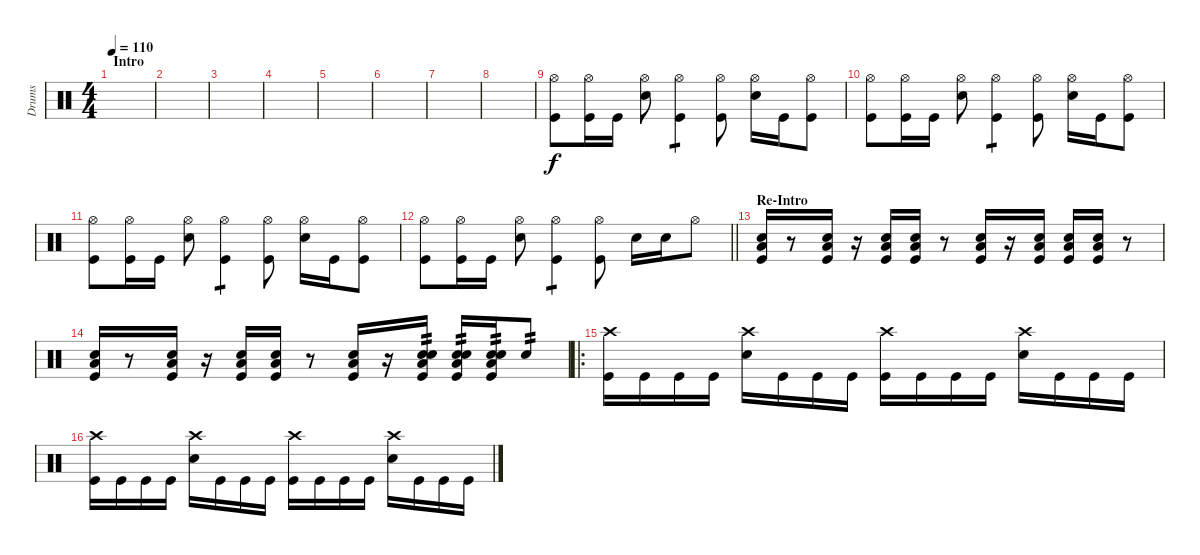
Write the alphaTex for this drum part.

\track ("Drums" "Drums") {instrument percussion}
\staff {score}
\articulation defaults
\ts (4 4)
\section ("" "Intro")
\tempo 110
\clef neutral
\ks c
|
|
|
|
|
|
|
|
("Hi-Hat (open)" "Kick (hit)").8 ("Hi-Hat (open)" "Kick (hit)").16 "Kick (hit)".16 ("Hi-Hat (open)" "Snare (hit) 2").8 ("Hi-Hat (open)" "Kick (hit)").4{tp 1} ("Hi-Hat (open)" "Kick (hit)").8 ("Hi-Hat (open)" "Snare (hit) 2").16 "Kick (hit)".16 ("Hi-Hat (open)" "Kick (hit)").8 |
("Hi-Hat (open)" "Kick (hit)").8 ("Hi-Hat (open)" "Kick (hit)").16 "Kick (hit)".16 ("Hi-Hat (open)" "Snare (hit) 2").8 ("Hi-Hat (open)" "Kick (hit)").4{tp 1} ("Hi-Hat (open)" "Kick (hit)").8 ("Hi-Hat (open)" "Snare (hit) 2").16 "Kick (hit)".16 ("Hi-Hat (open)" "Kick (hit)").8 |
("Hi-Hat (open)" "Kick (hit)").8 ("Hi-Hat (open)" "Kick (hit)").16 "Kick (hit)".16 ("Hi-Hat (open)" "Snare (hit) 2").8 ("Hi-Hat (open)" "Kick (hit)").4{tp 1} ("Hi-Hat (open)" "Kick (hit)").8 ("Hi-Hat (open)" "Snare (hit) 2").16 "Kick (hit)".16 ("Hi-Hat (open)" "Kick (hit)").8 |
\barLineRight lightlight
("Hi-Hat (open)" "Kick (hit)").8 ("Hi-Hat (open)" "Kick (hit)").16 "Kick (hit)".16 ("Hi-Hat (open)" "Snare (hit) 2").8 ("Hi-Hat (open)" "Kick (hit)").4{tp 1} ("Hi-Hat (open)" "Kick (hit)").8 "Snare (hit) 2".16 "Snare (hit) 2".16 "Hi-Hat (open)".8 |
\section ("" "Re-Intro")
("Low Floor Tom (hit)" "Snare (hit) 2" "Kick (hit)").16 r.8 ("Low Floor Tom (hit)" "Snare (hit) 2" "Kick (hit)").16 r.16 ("Low Floor Tom (hit)" "Snare (hit) 2" "Kick (hit)").16 ("Low Floor Tom (hit)" "Snare (hit) 2" "Kick (hit)").16 r.8 ("Low Floor Tom (hit)" "Snare (hit) 2" "Kick (hit)").16 r.16 ("Low Floor Tom (hit)" "Snare (hit) 2" "Kick (hit)").16 ("Low Floor Tom (hit)" "Snare (hit) 2" "Kick (hit)").16 ("Low Floor Tom (hit)" "Snare (hit) 2" "Kick (hit)").16 r.8 |
("Low Floor Tom (hit)" "Snare (hit) 2" "Kick (hit)").16 r.8 ("Low Floor Tom (hit)" "Snare (hit) 2" "Kick (hit)").16 r.16 ("Low Floor Tom (hit)" "Snare (hit) 2" "Kick (hit)").16 ("Low Floor Tom (hit)" "Snare (hit) 2" "Kick (hit)").16 r.8 ("Low Floor Tom (hit)" "Snare (hit) 2" "Kick (hit)").16 r.16 ("Snare (hit) 2" "Low Floor Tom (hit)" "Snare (hit) 2" "Kick (hit)").16{tp 2} ("Snare (hit) 2" "Low Floor Tom (hit)" "Snare (hit) 2" "Kick (hit)").16{tp 2} ("Snare (hit) 2" "Low Floor Tom (hit)" "Snare (hit) 2" "Kick (hit)").16{tp 2} "Snare (hit) 2".8{tp 2} |
\ro
("Crash high (hit)" "Kick (hit)").16 "Kick (hit)".16 "Kick (hit)".16 "Kick (hit)".16 ("Crash high (hit)" "Snare (hit) 2").16 "Kick (hit)".16 "Kick (hit)".16 "Kick (hit)".16 ("Crash high (hit)" "Kick (hit)").16 "Kick (hit)".16 "Kick (hit)".16 "Kick (hit)".16 ("Crash high (hit)" "Snare (hit) 2").16 "Kick (hit)".16 "Kick (hit)".16 "Kick (hit)".16 |
("Crash high (hit)" "Kick (hit)").16 "Kick (hit)".16 "Kick (hit)".16 "Kick (hit)".16 ("Crash high (hit)" "Snare (hit) 2").16 "Kick (hit)".16 "Kick (hit)".16 "Kick (hit)".16 ("Crash high (hit)" "Kick (hit)").16 "Kick (hit)".16 "Kick (hit)".16 "Kick (hit)".16 ("Crash high (hit)" "Snare (hit) 2").16 "Kick (hit)".16 "Kick (hit)".16 "Kick (hit)".16
